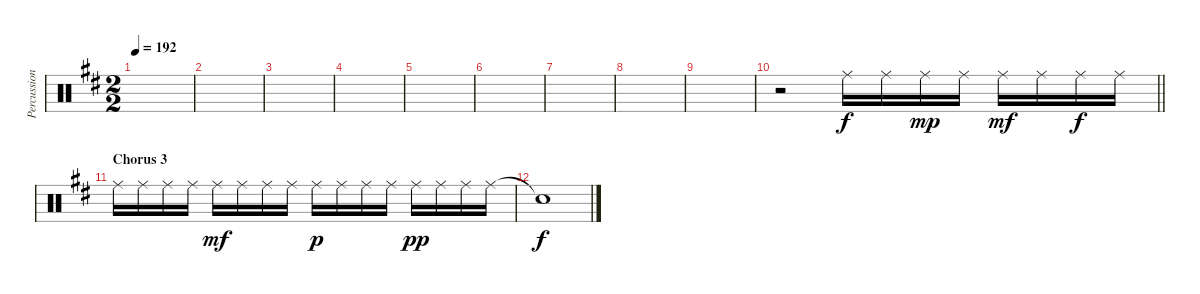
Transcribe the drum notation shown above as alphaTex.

\track ("Percussion" "Percussion") {instrument percussion}
\staff {score}
\articulation defaults
\ts (2 2)
\tempo 192
\clef neutral
\ks d
|
|
|
|
|
|
|
|
|
\barLineRight lightlight
r.2 "Ride (middle)".16 "Ride (middle)".16 "Ride (middle)".16{dy mp} "Ride (middle)".16 "Ride (middle)".16{dy mf} "Ride (middle)".16 "Ride (middle)".16{dy f} "Ride (middle)".16 |
\section ("" "Chorus 3")
"Ride (middle)".16 "Ride (middle)".16 "Ride (middle)".16 "Ride (middle)".16 "Ride (middle)".16{dy mf} "Ride (middle)".16 "Ride (middle)".16 "Ride (middle)".16 "Ride (middle)".16{dy p} "Ride (middle)".16 "Ride (middle)".16 "Ride (middle)".16 "Ride (middle)".16{dy pp} "Ride (middle)".16 "Ride (middle)".16 "Ride (middle)".16 |
"Snare (hit)"{t}.1{dy f}
